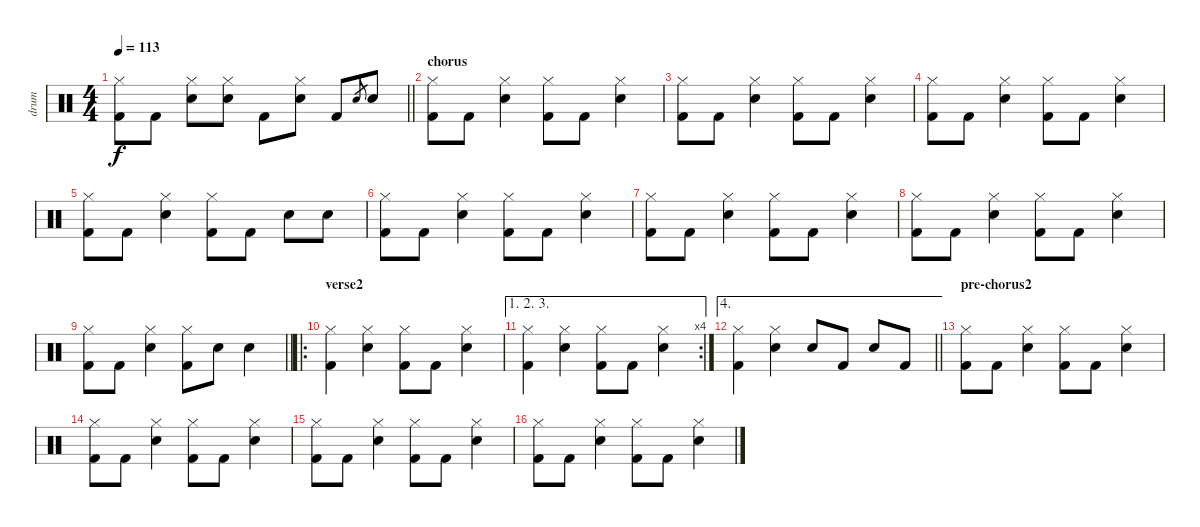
\track ("drum" "drum") {instrument percussion}
\staff {score}
\articulation defaults
\ts (4 4)
\tempo 113
\clef neutral
\barLineRight lightlight
\ks c
("Kick (hit) 2" "Hi-Hat (closed)").8{dy f} "Kick (hit) 2".8 ("Electric Snare (hit)" "Hi-Hat (closed)").8 ("Electric Snare (hit)" "Hi-Hat (closed)").8 "Kick (hit) 2".8 ("Electric Snare (hit)" "Hi-Hat (closed)").8 "Kick (hit) 2".8 "Electric Snare (hit)".8{gr} "Electric Snare (hit)".8 |
\section ("" "chorus")
("Kick (hit) 2" "Hi-Hat (closed)").8 "Kick (hit) 2".8 ("Electric Snare (hit)" "Hi-Hat (closed)").4 ("Kick (hit) 2" "Hi-Hat (closed)").8 "Kick (hit) 2".8 ("Electric Snare (hit)" "Hi-Hat (closed)").4 |
("Kick (hit) 2" "Hi-Hat (closed)").8 "Kick (hit) 2".8 ("Electric Snare (hit)" "Hi-Hat (closed)").4 ("Kick (hit) 2" "Hi-Hat (closed)").8 "Kick (hit) 2".8 ("Electric Snare (hit)" "Hi-Hat (closed)").4 |
("Kick (hit) 2" "Hi-Hat (closed)").8 "Kick (hit) 2".8 ("Electric Snare (hit)" "Hi-Hat (closed)").4 ("Kick (hit) 2" "Hi-Hat (closed)").8 "Kick (hit) 2".8 ("Electric Snare (hit)" "Hi-Hat (closed)").4 |
("Kick (hit) 2" "Hi-Hat (closed)").8 "Kick (hit) 2".8 ("Electric Snare (hit)" "Hi-Hat (closed)").4 ("Kick (hit) 2" "Hi-Hat (closed)").8 "Kick (hit) 2".8 "Electric Snare (hit)".8 "Electric Snare (hit)".8 |
("Kick (hit) 2" "Hi-Hat (closed)").8 "Kick (hit) 2".8 ("Electric Snare (hit)" "Hi-Hat (closed)").4 ("Kick (hit) 2" "Hi-Hat (closed)").8 "Kick (hit) 2".8 ("Electric Snare (hit)" "Hi-Hat (closed)").4 |
("Kick (hit) 2" "Hi-Hat (closed)").8 "Kick (hit) 2".8 ("Electric Snare (hit)" "Hi-Hat (closed)").4 ("Kick (hit) 2" "Hi-Hat (closed)").8 "Kick (hit) 2".8 ("Electric Snare (hit)" "Hi-Hat (closed)").4 |
("Kick (hit) 2" "Hi-Hat (closed)").8 "Kick (hit) 2".8 ("Electric Snare (hit)" "Hi-Hat (closed)").4 ("Kick (hit) 2" "Hi-Hat (closed)").8 "Kick (hit) 2".8 ("Electric Snare (hit)" "Hi-Hat (closed)").4 |
\barLineRight lightlight
("Kick (hit) 2" "Hi-Hat (closed)").8 "Kick (hit) 2".8 ("Electric Snare (hit)" "Hi-Hat (closed)").4 ("Kick (hit) 2" "Hi-Hat (closed)").8 "Electric Snare (hit)".8 "Electric Snare (hit)".4 |
\ro
\section ("" "verse2")
("Kick (hit) 2" "Hi-Hat (closed)").4 ("Electric Snare (hit)" "Hi-Hat (closed)").4 ("Kick (hit) 2" "Hi-Hat (closed)").8 "Kick (hit) 2".8 ("Electric Snare (hit)" "Hi-Hat (closed)").4 |
\ae (1 2 3)
\rc 4
("Kick (hit) 2" "Hi-Hat (closed)").4 ("Electric Snare (hit)" "Hi-Hat (closed)").4 ("Kick (hit) 2" "Hi-Hat (closed)").8 "Kick (hit) 2".8 ("Electric Snare (hit)" "Hi-Hat (closed)").4 |
\ae 4
\barLineRight lightlight
("Kick (hit) 2" "Hi-Hat (closed)").4 ("Electric Snare (hit)" "Hi-Hat (closed)").4 "Electric Snare (hit)".8 "Kick (hit) 2".8 "Electric Snare (hit)".8 "Kick (hit) 2".8 |
\section ("" "pre-chorus2")
("Kick (hit) 2" "Hi-Hat (closed)").8 "Kick (hit) 2".8 ("Electric Snare (hit)" "Hi-Hat (closed)").4 ("Kick (hit) 2" "Hi-Hat (closed)").8 "Kick (hit) 2".8 ("Electric Snare (hit)" "Hi-Hat (closed)").4 |
("Kick (hit) 2" "Hi-Hat (closed)").8 "Kick (hit) 2".8 ("Electric Snare (hit)" "Hi-Hat (closed)").4 ("Kick (hit) 2" "Hi-Hat (closed)").8 "Kick (hit) 2".8 ("Electric Snare (hit)" "Hi-Hat (closed)").4 |
("Kick (hit) 2" "Hi-Hat (closed)").8 "Kick (hit) 2".8 ("Electric Snare (hit)" "Hi-Hat (closed)").4 ("Kick (hit) 2" "Hi-Hat (closed)").8 "Kick (hit) 2".8 ("Electric Snare (hit)" "Hi-Hat (closed)").4 |
("Kick (hit) 2" "Hi-Hat (closed)").8 "Kick (hit) 2".8 ("Electric Snare (hit)" "Hi-Hat (closed)").4 ("Kick (hit) 2" "Hi-Hat (closed)").8 "Kick (hit) 2".8 ("Electric Snare (hit)" "Hi-Hat (closed)").4
